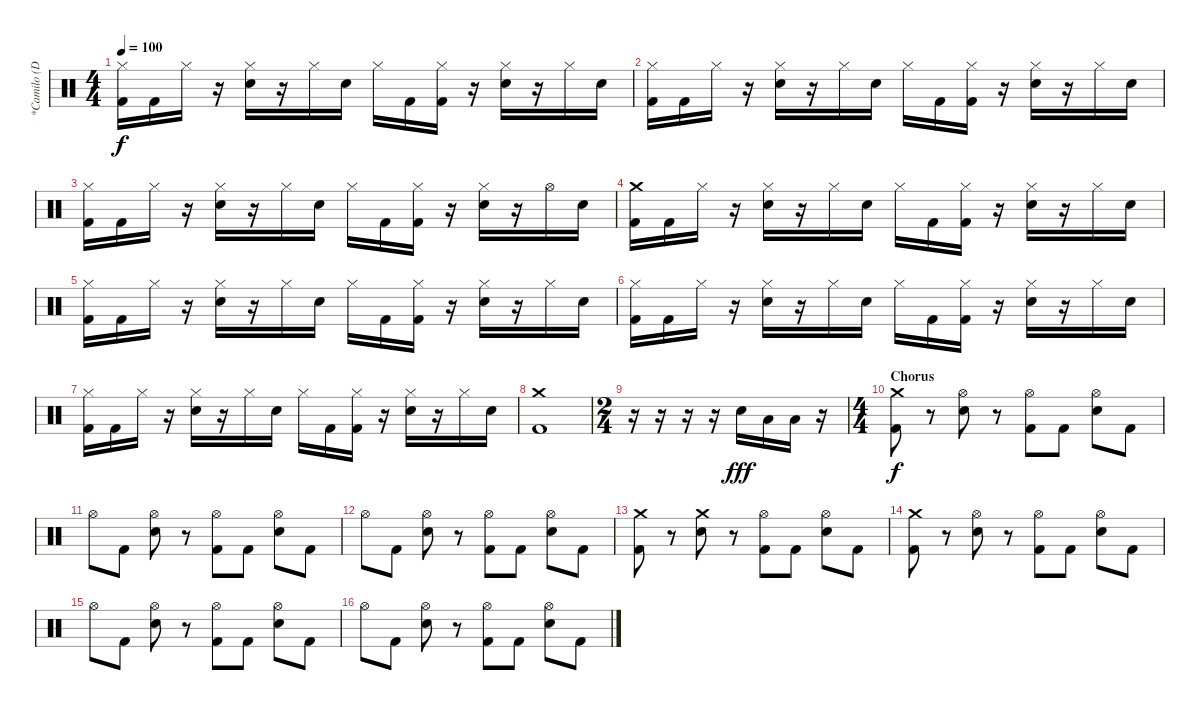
\track ("*Camilo (Drums)" "*Camilo (D") {instrument percussion}
\staff {score}
\articulation defaults
\ts (4 4)
\tempo 100
\clef neutral
\ks c
("Hi-Hat (closed)" "Kick (hit) 2").16{dy f} "Kick (hit) 2".16 "Hi-Hat (closed)".16 r.16 ("Hi-Hat (closed)" "Electric Snare (hit)").16 r.16 "Hi-Hat (closed)".16 "Electric Snare (hit)".16 "Hi-Hat (closed)".16 "Kick (hit) 2".16 ("Hi-Hat (closed)" "Kick (hit) 2").16 r.16 ("Hi-Hat (closed)" "Electric Snare (hit)").16 r.16 "Hi-Hat (closed)".16 "Electric Snare (hit)".16 |
("Hi-Hat (closed)" "Kick (hit) 2").16 "Kick (hit) 2".16 "Hi-Hat (closed)".16 r.16 ("Hi-Hat (closed)" "Electric Snare (hit)").16 r.16 "Hi-Hat (closed)".16 "Electric Snare (hit)".16 "Hi-Hat (closed)".16 "Kick (hit) 2".16 ("Hi-Hat (closed)" "Kick (hit) 2").16 r.16 ("Hi-Hat (closed)" "Electric Snare (hit)").16 r.16 "Hi-Hat (closed)".16 "Electric Snare (hit)".16 |
("Hi-Hat (closed)" "Kick (hit) 2").16 "Kick (hit) 2".16 "Hi-Hat (closed)".16 r.16 ("Hi-Hat (closed)" "Electric Snare (hit)").16 r.16 "Hi-Hat (closed)".16 "Electric Snare (hit)".16 "Hi-Hat (closed)".16 "Kick (hit) 2".16 ("Hi-Hat (closed)" "Kick (hit) 2").16 r.16 ("Hi-Hat (closed)" "Electric Snare (hit)").16 r.16 "Hi-Hat (open)".16 "Electric Snare (hit)".16 |
("Crash medium (hit)" "Kick (hit) 2").16 "Kick (hit) 2".16 "Hi-Hat (closed)".16 r.16 ("Hi-Hat (closed)" "Electric Snare (hit)").16 r.16 "Hi-Hat (closed)".16 "Electric Snare (hit)".16 "Hi-Hat (closed)".16 "Kick (hit) 2".16 ("Hi-Hat (closed)" "Kick (hit) 2").16 r.16 ("Hi-Hat (closed)" "Electric Snare (hit)").16 r.16 "Hi-Hat (closed)".16 "Electric Snare (hit)".16 |
("Hi-Hat (closed)" "Kick (hit) 2").16 "Kick (hit) 2".16 "Hi-Hat (closed)".16 r.16 ("Hi-Hat (closed)" "Electric Snare (hit)").16 r.16 "Hi-Hat (closed)".16 "Electric Snare (hit)".16 "Hi-Hat (closed)".16 "Kick (hit) 2".16 ("Hi-Hat (closed)" "Kick (hit) 2").16 r.16 ("Hi-Hat (closed)" "Electric Snare (hit)").16 r.16 "Hi-Hat (closed)".16 "Electric Snare (hit)".16 |
("Hi-Hat (closed)" "Kick (hit) 2").16 "Kick (hit) 2".16 "Hi-Hat (closed)".16 r.16 ("Hi-Hat (closed)" "Electric Snare (hit)").16 r.16 "Hi-Hat (closed)".16 "Electric Snare (hit)".16 "Hi-Hat (closed)".16 "Kick (hit) 2".16 ("Hi-Hat (closed)" "Kick (hit) 2").16 r.16 ("Hi-Hat (closed)" "Electric Snare (hit)").16 r.16 "Hi-Hat (closed)".16 "Electric Snare (hit)".16 |
("Hi-Hat (closed)" "Kick (hit) 2").16 "Kick (hit) 2".16 "Hi-Hat (closed)".16 r.16 ("Hi-Hat (closed)" "Electric Snare (hit)").16 r.16 "Hi-Hat (closed)".16 "Electric Snare (hit)".16 "Hi-Hat (closed)".16 "Kick (hit) 2".16 ("Hi-Hat (closed)" "Kick (hit) 2").16 r.16 ("Hi-Hat (closed)" "Electric Snare (hit)").16 r.16 "Hi-Hat (closed)".16 "Electric Snare (hit)".16 |
("Crash medium (hit)" "Kick (hit) 2").1 |
\ts (2 4)
r.16 r.16 r.16 r.16 "Electric Snare (hit)".16{dy fff} "Low Tom (hit)".16 "Low Tom (hit)".16 r.16 |
\ts (4 4)
\section ("" "Chorus")
("Crash medium (hit)" "Kick (hit) 2").8{dy f volume 16} r.8 ("Hi-Hat (open)" "Electric Snare (hit)").8 r.8 ("Hi-Hat (open)" "Kick (hit) 2").8 "Kick (hit) 2".8 ("Hi-Hat (open)" "Electric Snare (hit)").8 "Kick (hit) 2".8 |
"Hi-Hat (open)".8 "Kick (hit) 2".8 ("Hi-Hat (open)" "Electric Snare (hit)").8 r.8 ("Hi-Hat (open)" "Kick (hit) 2").8 "Kick (hit) 2".8 ("Hi-Hat (open)" "Electric Snare (hit)").8 "Kick (hit) 2".8 |
"Hi-Hat (open)".8 "Kick (hit) 2".8 ("Hi-Hat (open)" "Electric Snare (hit)").8 r.8 ("Hi-Hat (open)" "Kick (hit) 2").8 "Kick (hit) 2".8 ("Hi-Hat (open)" "Electric Snare (hit)").8 "Kick (hit) 2".8 |
("Crash medium (hit)" "Kick (hit) 2").8 r.8 ("Crash medium (hit)" "Electric Snare (hit)").8 r.8 ("Hi-Hat (open)" "Kick (hit) 2").8 "Kick (hit) 2".8 ("Hi-Hat (open)" "Electric Snare (hit)").8 "Kick (hit) 2".8 |
("Crash medium (hit)" "Kick (hit) 2").8{volume 16} r.8 ("Hi-Hat (open)" "Electric Snare (hit)").8 r.8 ("Hi-Hat (open)" "Kick (hit) 2").8 "Kick (hit) 2".8 ("Hi-Hat (open)" "Electric Snare (hit)").8 "Kick (hit) 2".8 |
"Hi-Hat (open)".8 "Kick (hit) 2".8 ("Hi-Hat (open)" "Electric Snare (hit)").8 r.8 ("Hi-Hat (open)" "Kick (hit) 2").8 "Kick (hit) 2".8 ("Hi-Hat (open)" "Electric Snare (hit)").8 "Kick (hit) 2".8 |
"Hi-Hat (open)".8 "Kick (hit) 2".8 ("Hi-Hat (open)" "Electric Snare (hit)").8 r.8 ("Hi-Hat (open)" "Kick (hit) 2").8 "Kick (hit) 2".8 ("Hi-Hat (open)" "Electric Snare (hit)").8 "Kick (hit) 2".8
